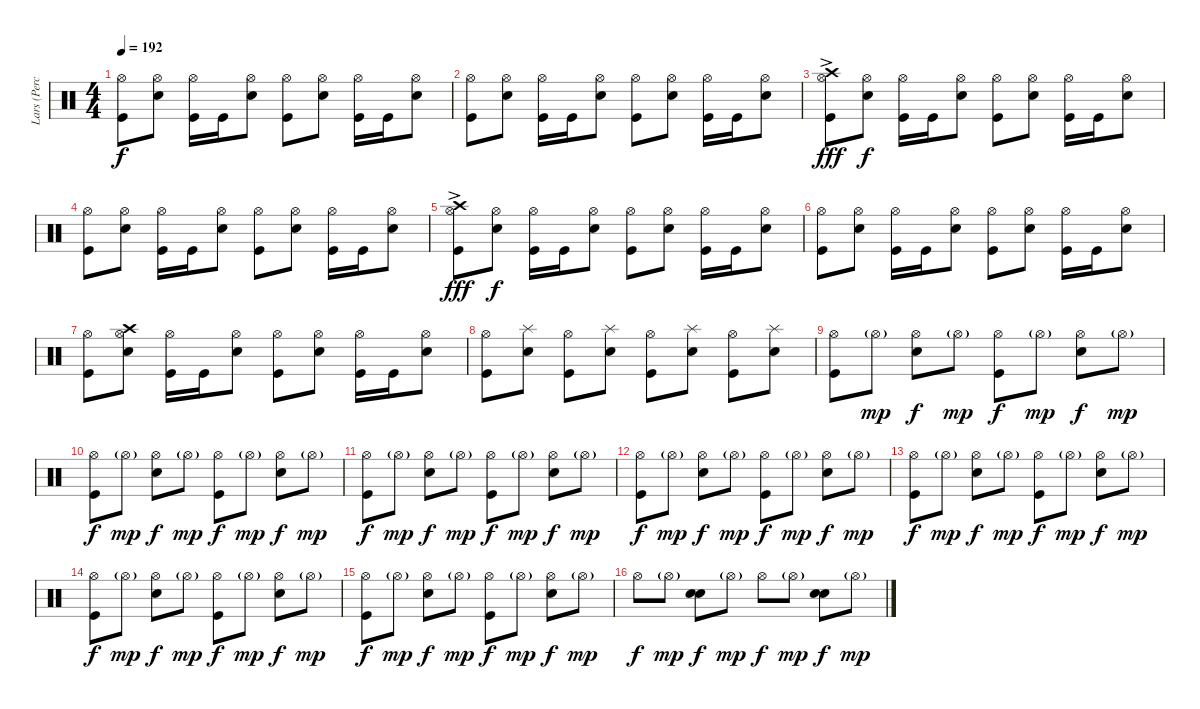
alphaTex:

\track ("Lars (Percussion)" "Lars (Perc") {instrument percussion}
\staff {score}
\articulation defaults
\ts (4 4)
\tempo 192
\clef neutral
\ks c
("Hi-Hat (open)" "Kick (hit)").8{dy f} ("Hi-Hat (open)" "Snare (hit) 2").8 ("Hi-Hat (open)" "Kick (hit)").16 "Kick (hit)".16 ("Hi-Hat (open)" "Snare (hit) 2").8 ("Hi-Hat (open)" "Kick (hit)").8 ("Hi-Hat (open)" "Snare (hit) 2").8 ("Hi-Hat (open)" "Kick (hit)").16 "Kick (hit)".16 ("Hi-Hat (open)" "Snare (hit) 2").8 |
("Hi-Hat (open)" "Kick (hit)").8 ("Hi-Hat (open)" "Snare (hit) 2").8 ("Hi-Hat (open)" "Kick (hit)").16 "Kick (hit)".16 ("Hi-Hat (open)" "Snare (hit) 2").8 ("Hi-Hat (open)" "Kick (hit)").8 ("Hi-Hat (open)" "Snare (hit) 2").8 ("Hi-Hat (open)" "Kick (hit)").16 "Kick (hit)".16 ("Hi-Hat (open)" "Snare (hit) 2").8 |
("Hi-Hat (open)" "Crash high (hit)" "Kick (hit)"{ac}).8{dy fff} ("Hi-Hat (open)" "Snare (hit) 2").8{dy f} ("Hi-Hat (open)" "Kick (hit)").16 "Kick (hit)".16 ("Hi-Hat (open)" "Snare (hit) 2").8 ("Hi-Hat (open)" "Kick (hit)").8 ("Hi-Hat (open)" "Snare (hit) 2").8 ("Hi-Hat (open)" "Kick (hit)").16 "Kick (hit)".16 ("Hi-Hat (open)" "Snare (hit) 2").8 |
("Hi-Hat (open)" "Kick (hit)").8 ("Hi-Hat (open)" "Snare (hit) 2").8 ("Hi-Hat (open)" "Kick (hit)").16 "Kick (hit)".16 ("Hi-Hat (open)" "Snare (hit) 2").8 ("Hi-Hat (open)" "Kick (hit)").8 ("Hi-Hat (open)" "Snare (hit) 2").8 ("Hi-Hat (open)" "Kick (hit)").16 "Kick (hit)".16 ("Hi-Hat (open)" "Snare (hit) 2").8 |
("Hi-Hat (open)" "Crash high (hit)" "Kick (hit)"{ac}).8{dy fff} ("Hi-Hat (open)" "Snare (hit) 2").8{dy f} ("Hi-Hat (open)" "Kick (hit)").16 "Kick (hit)".16 ("Hi-Hat (open)" "Snare (hit) 2").8 ("Hi-Hat (open)" "Kick (hit)").8 ("Hi-Hat (open)" "Snare (hit) 2").8 ("Hi-Hat (open)" "Kick (hit)").16 "Kick (hit)".16 ("Hi-Hat (open)" "Snare (hit) 2").8 |
("Hi-Hat (open)" "Kick (hit)").8 ("Hi-Hat (open)" "Snare (hit) 2").8 ("Hi-Hat (open)" "Kick (hit)").16 "Kick (hit)".16 ("Hi-Hat (open)" "Snare (hit) 2").8 ("Hi-Hat (open)" "Kick (hit)").8 ("Hi-Hat (open)" "Snare (hit) 2").8 ("Hi-Hat (open)" "Kick (hit)").16 "Kick (hit)".16 ("Hi-Hat (open)" "Snare (hit) 2").8 |
("Hi-Hat (open)" "Kick (hit)").8 ("Hi-Hat (open)" "Crash high (hit)" "Snare (hit) 2").8 ("Hi-Hat (open)" "Kick (hit)").16 "Kick (hit)".16 ("Hi-Hat (open)" "Snare (hit) 2").8 ("Hi-Hat (open)" "Kick (hit)").8 ("Hi-Hat (open)" "Snare (hit) 2").8 ("Hi-Hat (open)" "Kick (hit)").16 "Kick (hit)".16 ("Hi-Hat (open)" "Snare (hit) 2").8 |
("Hi-Hat (open)" "Kick (hit)").8 ("Splash (hit)" "Snare (hit) 2").8 ("Hi-Hat (open)" "Kick (hit)").8 ("Splash (hit)" "Snare (hit) 2").8 ("Hi-Hat (open)" "Kick (hit)").8 ("Splash (hit)" "Snare (hit) 2").8 ("Hi-Hat (open)" "Kick (hit)").8 ("Splash (hit)" "Snare (hit) 2").8 |
("Hi-Hat (open)" "Kick (hit)").8 "Hi-Hat (open)"{g}.8{dy mp} ("Hi-Hat (open)" "Snare (hit) 2").8{dy f} "Hi-Hat (open)"{g}.8{dy mp} ("Hi-Hat (open)" "Kick (hit)").8{dy f} "Hi-Hat (open)"{g}.8{dy mp} ("Hi-Hat (open)" "Snare (hit) 2").8{dy f} "Hi-Hat (open)"{g}.8{dy mp} |
("Hi-Hat (open)" "Kick (hit)").8{dy f} "Hi-Hat (open)"{g}.8{dy mp} ("Hi-Hat (open)" "Snare (hit) 2").8{dy f} "Hi-Hat (open)"{g}.8{dy mp} ("Hi-Hat (open)" "Kick (hit)").8{dy f} "Hi-Hat (open)"{g}.8{dy mp} ("Hi-Hat (open)" "Snare (hit) 2").8{dy f} "Hi-Hat (open)"{g}.8{dy mp} |
("Hi-Hat (open)" "Kick (hit)").8{dy f} "Hi-Hat (open)"{g}.8{dy mp} ("Hi-Hat (open)" "Snare (hit) 2").8{dy f} "Hi-Hat (open)"{g}.8{dy mp} ("Hi-Hat (open)" "Kick (hit)").8{dy f} "Hi-Hat (open)"{g}.8{dy mp} ("Hi-Hat (open)" "Snare (hit) 2").8{dy f} "Hi-Hat (open)"{g}.8{dy mp} |
("Hi-Hat (open)" "Kick (hit)").8{dy f} "Hi-Hat (open)"{g}.8{dy mp} ("Hi-Hat (open)" "Snare (hit) 2").8{dy f} "Hi-Hat (open)"{g}.8{dy mp} ("Hi-Hat (open)" "Kick (hit)").8{dy f} "Hi-Hat (open)"{g}.8{dy mp} ("Hi-Hat (open)" "Snare (hit) 2").8{dy f} "Hi-Hat (open)"{g}.8{dy mp} |
("Hi-Hat (open)" "Kick (hit)").8{dy f} "Hi-Hat (open)"{g}.8{dy mp} ("Hi-Hat (open)" "Snare (hit) 2").8{dy f} "Hi-Hat (open)"{g}.8{dy mp} ("Hi-Hat (open)" "Kick (hit)").8{dy f} "Hi-Hat (open)"{g}.8{dy mp} ("Hi-Hat (open)" "Snare (hit) 2").8{dy f} "Hi-Hat (open)"{g}.8{dy mp} |
("Hi-Hat (open)" "Kick (hit)").8{dy f} "Hi-Hat (open)"{g}.8{dy mp} ("Hi-Hat (open)" "Snare (hit) 2").8{dy f} "Hi-Hat (open)"{g}.8{dy mp} ("Hi-Hat (open)" "Kick (hit)").8{dy f} "Hi-Hat (open)"{g}.8{dy mp} ("Hi-Hat (open)" "Snare (hit) 2").8{dy f} "Hi-Hat (open)"{g}.8{dy mp} |
("Hi-Hat (open)" "Kick (hit)").8{dy f} "Hi-Hat (open)"{g}.8{dy mp} ("Hi-Hat (open)" "Snare (hit) 2").8{dy f} "Hi-Hat (open)"{g}.8{dy mp} ("Hi-Hat (open)" "Kick (hit)").8{dy f} "Hi-Hat (open)"{g}.8{dy mp} ("Hi-Hat (open)" "Snare (hit) 2").8{dy f} "Hi-Hat (open)"{g}.8{dy mp} |
"Hi-Hat (open)".8{dy f} "Hi-Hat (open)"{g}.8{dy mp} ("Snare (hit) 2" "Snare (hit) 2").8{bd 480 dy f} "Hi-Hat (open)"{g}.8{dy mp} "Hi-Hat (open)".8{dy f} "Hi-Hat (open)"{g}.8{dy mp} ("Snare (hit) 2" "Snare (hit) 2").8{bd 480 dy f} "Hi-Hat (open)"{g}.8{dy mp}
